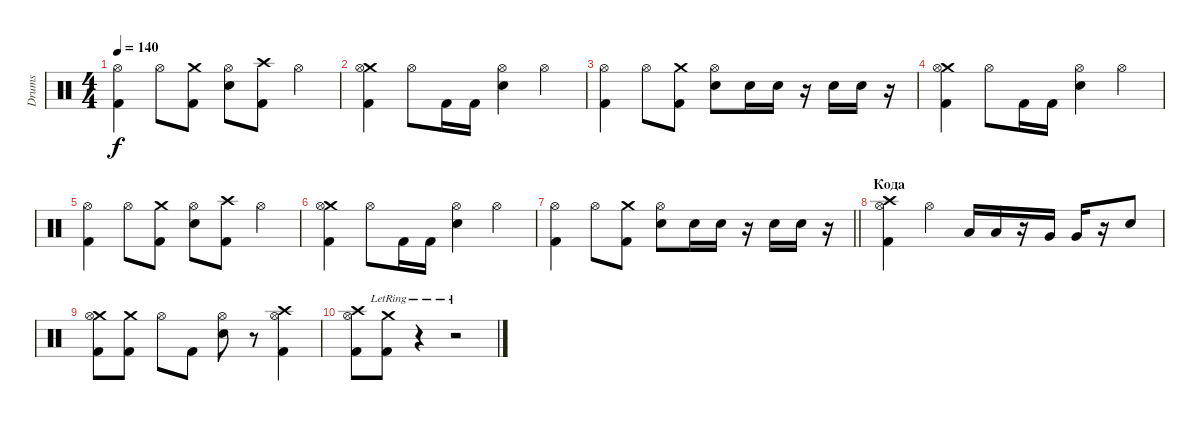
\track ("Drums" "Drums") {instrument percussion}
\staff {score}
\articulation defaults
\ts (4 4)
\tempo 140
\clef neutral
\ks c
("Kick (hit) 2" "Hi-Hat (open)").4{dy f} "Hi-Hat (open)".8 ("Crash medium (hit)" "Kick (hit) 2").8 ("Electric Snare (hit)" "Hi-Hat (open)").8 ("Crash high (hit)" "Kick (hit) 2").8 "Hi-Hat (open)".4 |
("Crash medium (hit)" "Kick (hit) 2" "Hi-Hat (open)").4 "Hi-Hat (open)".8 "Kick (hit) 2".16 "Kick (hit) 2".16 ("Electric Snare (hit)" "Hi-Hat (open)").4 "Hi-Hat (open)".4 |
("Kick (hit) 2" "Hi-Hat (open)").4 "Hi-Hat (open)".8 ("Crash medium (hit)" "Kick (hit) 2").8 ("Electric Snare (hit)" "Hi-Hat (open)").8 "Electric Snare (hit)".16 "Electric Snare (hit)".16 r.16 "Electric Snare (hit)".16 "Electric Snare (hit)".16 r.16 |
("Crash medium (hit)" "Kick (hit) 2" "Hi-Hat (open)").4 "Hi-Hat (open)".8 "Kick (hit) 2".16 "Kick (hit) 2".16 ("Electric Snare (hit)" "Hi-Hat (open)").4 "Hi-Hat (open)".4 |
("Kick (hit) 2" "Hi-Hat (open)").4 "Hi-Hat (open)".8 ("Crash medium (hit)" "Kick (hit) 2").8 ("Electric Snare (hit)" "Hi-Hat (open)").8 ("Crash high (hit)" "Kick (hit) 2").8 "Hi-Hat (open)".4 |
("Crash medium (hit)" "Kick (hit) 2" "Hi-Hat (open)").4 "Hi-Hat (open)".8 "Kick (hit) 2".16 "Kick (hit) 2".16 ("Electric Snare (hit)" "Hi-Hat (open)").4 "Hi-Hat (open)".4 |
\barLineRight lightlight
("Kick (hit) 2" "Hi-Hat (open)").4 "Hi-Hat (open)".8 ("Crash medium (hit)" "Kick (hit) 2").8 ("Electric Snare (hit)" "Hi-Hat (open)").8 "Electric Snare (hit)".16 "Electric Snare (hit)".16 r.16 "Electric Snare (hit)".16 "Electric Snare (hit)".16 r.16 |
\section ("" "Кода")
("Crash high (hit)" "Hi-Hat (open)" "Kick (hit) 2").4 "Hi-Hat (open)".4 "Low Tom (hit)".16 "Low Tom (hit)".16 r.16 "Very Low Tom (hit)".16 "Very Low Tom (hit)".16 r.16 "Electric Snare (hit)".8 |
("Crash medium (hit)" "Kick (hit) 2" "Hi-Hat (open)").8 ("Crash medium (hit)" "Kick (hit) 2").8 "Hi-Hat (open)".8 "Kick (hit) 2".8 ("Electric Snare (hit)" "Hi-Hat (open)").8 r.8 ("Crash high (hit)" "Kick (hit) 2" "Hi-Hat (open)").4 |
("Crash high (hit)" "Kick (hit) 2" "Hi-Hat (open)").8 ("Crash medium (hit)"{lr} "Kick (hit) 2").8 r.4 r.2
